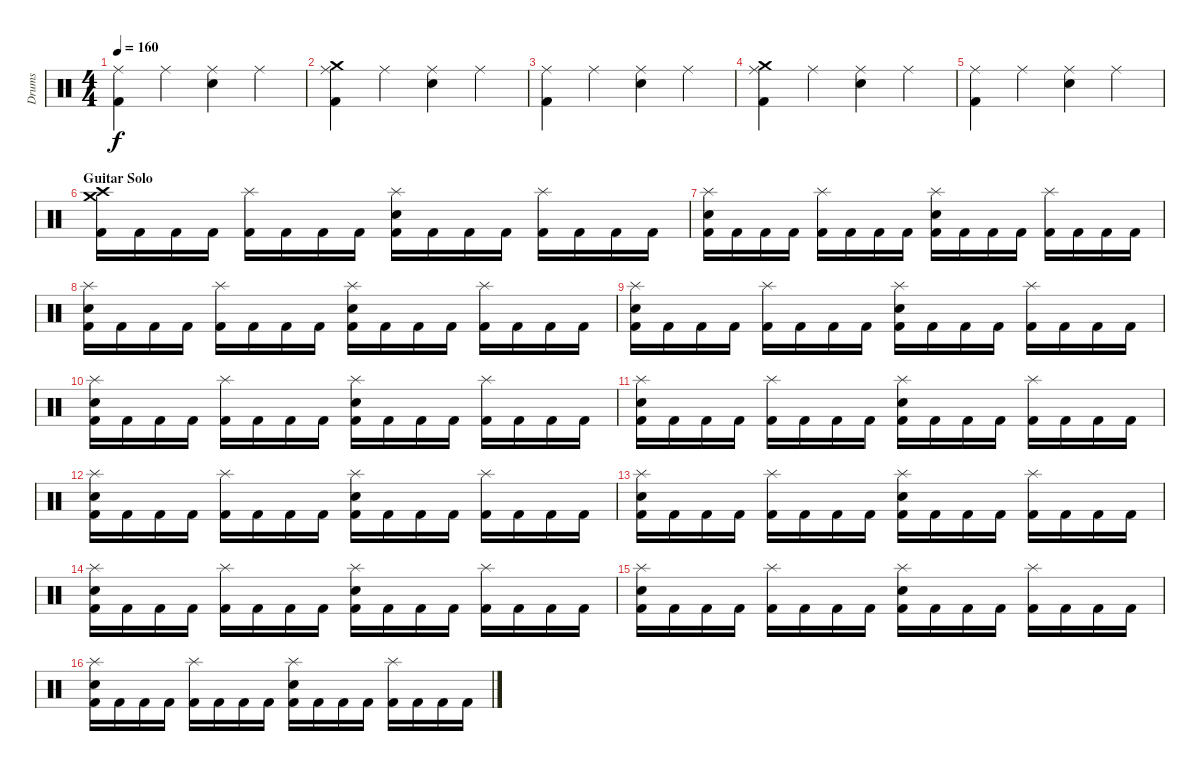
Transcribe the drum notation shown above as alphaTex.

\track ("Drums" "Drums") {instrument percussion}
\staff {score}
\articulation defaults
\ts (4 4)
\tempo 160
\clef neutral
\ks c
("Ride (middle)" "Kick (hit) 2").4{dy f} "Ride (middle)".4 ("Ride (middle)" "Snare (hit) 2").4 "Ride (middle)".4 |
("Ride (middle)" "Crash medium (hit)" "Kick (hit) 2").4 "Ride (middle)".4 ("Ride (middle)" "Snare (hit) 2").4 "Ride (middle)".4 |
("Ride (middle)" "Kick (hit) 2").4 "Ride (middle)".4 ("Ride (middle)" "Snare (hit) 2").4 "Ride (middle)".4 |
("Ride (middle)" "Crash medium (hit)" "Kick (hit) 2").4 "Ride (middle)".4 ("Ride (middle)" "Snare (hit) 2").4 "Ride (middle)".4 |
("Ride (middle)" "Kick (hit) 2").4 "Ride (middle)".4 ("Ride (middle)" "Snare (hit) 2").4 "Ride (middle)".4 |
\section ("" "Guitar Solo")
("Crash medium (hit)" "Crash high (hit)" "Kick (hit) 2").16 "Kick (hit) 2".16 "Kick (hit) 2".16 "Kick (hit) 2".16 ("Splash (hit)" "Kick (hit) 2").16 "Kick (hit) 2".16 "Kick (hit) 2".16 "Kick (hit) 2".16 ("Splash (hit)" "Snare (hit) 2" "Kick (hit) 2").16 "Kick (hit) 2".16 "Kick (hit) 2".16 "Kick (hit) 2".16 ("Splash (hit)" "Kick (hit) 2").16 "Kick (hit) 2".16 "Kick (hit) 2".16 "Kick (hit) 2".16 |
("Splash (hit)" "Snare (hit) 2" "Kick (hit) 2").16 "Kick (hit) 2".16 "Kick (hit) 2".16 "Kick (hit) 2".16 ("Splash (hit)" "Kick (hit) 2").16 "Kick (hit) 2".16 "Kick (hit) 2".16 "Kick (hit) 2".16 ("Splash (hit)" "Snare (hit) 2" "Kick (hit) 2").16 "Kick (hit) 2".16 "Kick (hit) 2".16 "Kick (hit) 2".16 ("Splash (hit)" "Kick (hit) 2").16 "Kick (hit) 2".16 "Kick (hit) 2".16 "Kick (hit) 2".16 |
("Splash (hit)" "Snare (hit) 2" "Kick (hit) 2").16 "Kick (hit) 2".16 "Kick (hit) 2".16 "Kick (hit) 2".16 ("Splash (hit)" "Kick (hit) 2").16 "Kick (hit) 2".16 "Kick (hit) 2".16 "Kick (hit) 2".16 ("Splash (hit)" "Snare (hit) 2" "Kick (hit) 2").16 "Kick (hit) 2".16 "Kick (hit) 2".16 "Kick (hit) 2".16 ("Splash (hit)" "Kick (hit) 2").16 "Kick (hit) 2".16 "Kick (hit) 2".16 "Kick (hit) 2".16 |
("Splash (hit)" "Snare (hit) 2" "Kick (hit) 2").16 "Kick (hit) 2".16 "Kick (hit) 2".16 "Kick (hit) 2".16 ("Splash (hit)" "Kick (hit) 2").16 "Kick (hit) 2".16 "Kick (hit) 2".16 "Kick (hit) 2".16 ("Splash (hit)" "Snare (hit) 2" "Kick (hit) 2").16 "Kick (hit) 2".16 "Kick (hit) 2".16 "Kick (hit) 2".16 ("Splash (hit)" "Kick (hit) 2").16 "Kick (hit) 2".16 "Kick (hit) 2".16 "Kick (hit) 2".16 |
("Splash (hit)" "Snare (hit) 2" "Kick (hit) 2").16 "Kick (hit) 2".16 "Kick (hit) 2".16 "Kick (hit) 2".16 ("Splash (hit)" "Kick (hit) 2").16 "Kick (hit) 2".16 "Kick (hit) 2".16 "Kick (hit) 2".16 ("Splash (hit)" "Snare (hit) 2" "Kick (hit) 2").16 "Kick (hit) 2".16 "Kick (hit) 2".16 "Kick (hit) 2".16 ("Splash (hit)" "Kick (hit) 2").16 "Kick (hit) 2".16 "Kick (hit) 2".16 "Kick (hit) 2".16 |
("Splash (hit)" "Snare (hit) 2" "Kick (hit) 2").16 "Kick (hit) 2".16 "Kick (hit) 2".16 "Kick (hit) 2".16 ("Splash (hit)" "Kick (hit) 2").16 "Kick (hit) 2".16 "Kick (hit) 2".16 "Kick (hit) 2".16 ("Splash (hit)" "Snare (hit) 2" "Kick (hit) 2").16 "Kick (hit) 2".16 "Kick (hit) 2".16 "Kick (hit) 2".16 ("Splash (hit)" "Kick (hit) 2").16 "Kick (hit) 2".16 "Kick (hit) 2".16 "Kick (hit) 2".16 |
("Splash (hit)" "Snare (hit) 2" "Kick (hit) 2").16 "Kick (hit) 2".16 "Kick (hit) 2".16 "Kick (hit) 2".16 ("Splash (hit)" "Kick (hit) 2").16 "Kick (hit) 2".16 "Kick (hit) 2".16 "Kick (hit) 2".16 ("Splash (hit)" "Snare (hit) 2" "Kick (hit) 2").16 "Kick (hit) 2".16 "Kick (hit) 2".16 "Kick (hit) 2".16 ("Splash (hit)" "Kick (hit) 2").16 "Kick (hit) 2".16 "Kick (hit) 2".16 "Kick (hit) 2".16 |
("Splash (hit)" "Snare (hit) 2" "Kick (hit) 2").16 "Kick (hit) 2".16 "Kick (hit) 2".16 "Kick (hit) 2".16 ("Splash (hit)" "Kick (hit) 2").16 "Kick (hit) 2".16 "Kick (hit) 2".16 "Kick (hit) 2".16 ("Splash (hit)" "Snare (hit) 2" "Kick (hit) 2").16 "Kick (hit) 2".16 "Kick (hit) 2".16 "Kick (hit) 2".16 ("Splash (hit)" "Kick (hit) 2").16 "Kick (hit) 2".16 "Kick (hit) 2".16 "Kick (hit) 2".16 |
("Splash (hit)" "Snare (hit) 2" "Kick (hit) 2").16 "Kick (hit) 2".16 "Kick (hit) 2".16 "Kick (hit) 2".16 ("Splash (hit)" "Kick (hit) 2").16 "Kick (hit) 2".16 "Kick (hit) 2".16 "Kick (hit) 2".16 ("Splash (hit)" "Snare (hit) 2" "Kick (hit) 2").16 "Kick (hit) 2".16 "Kick (hit) 2".16 "Kick (hit) 2".16 ("Splash (hit)" "Kick (hit) 2").16 "Kick (hit) 2".16 "Kick (hit) 2".16 "Kick (hit) 2".16 |
("Splash (hit)" "Snare (hit) 2" "Kick (hit) 2").16 "Kick (hit) 2".16 "Kick (hit) 2".16 "Kick (hit) 2".16 ("Splash (hit)" "Kick (hit) 2").16 "Kick (hit) 2".16 "Kick (hit) 2".16 "Kick (hit) 2".16 ("Splash (hit)" "Snare (hit) 2" "Kick (hit) 2").16 "Kick (hit) 2".16 "Kick (hit) 2".16 "Kick (hit) 2".16 ("Splash (hit)" "Kick (hit) 2").16 "Kick (hit) 2".16 "Kick (hit) 2".16 "Kick (hit) 2".16 |
("Splash (hit)" "Snare (hit) 2" "Kick (hit) 2").16 "Kick (hit) 2".16 "Kick (hit) 2".16 "Kick (hit) 2".16 ("Splash (hit)" "Kick (hit) 2").16 "Kick (hit) 2".16 "Kick (hit) 2".16 "Kick (hit) 2".16 ("Splash (hit)" "Snare (hit) 2" "Kick (hit) 2").16 "Kick (hit) 2".16 "Kick (hit) 2".16 "Kick (hit) 2".16 ("Splash (hit)" "Kick (hit) 2").16 "Kick (hit) 2".16 "Kick (hit) 2".16 "Kick (hit) 2".16
